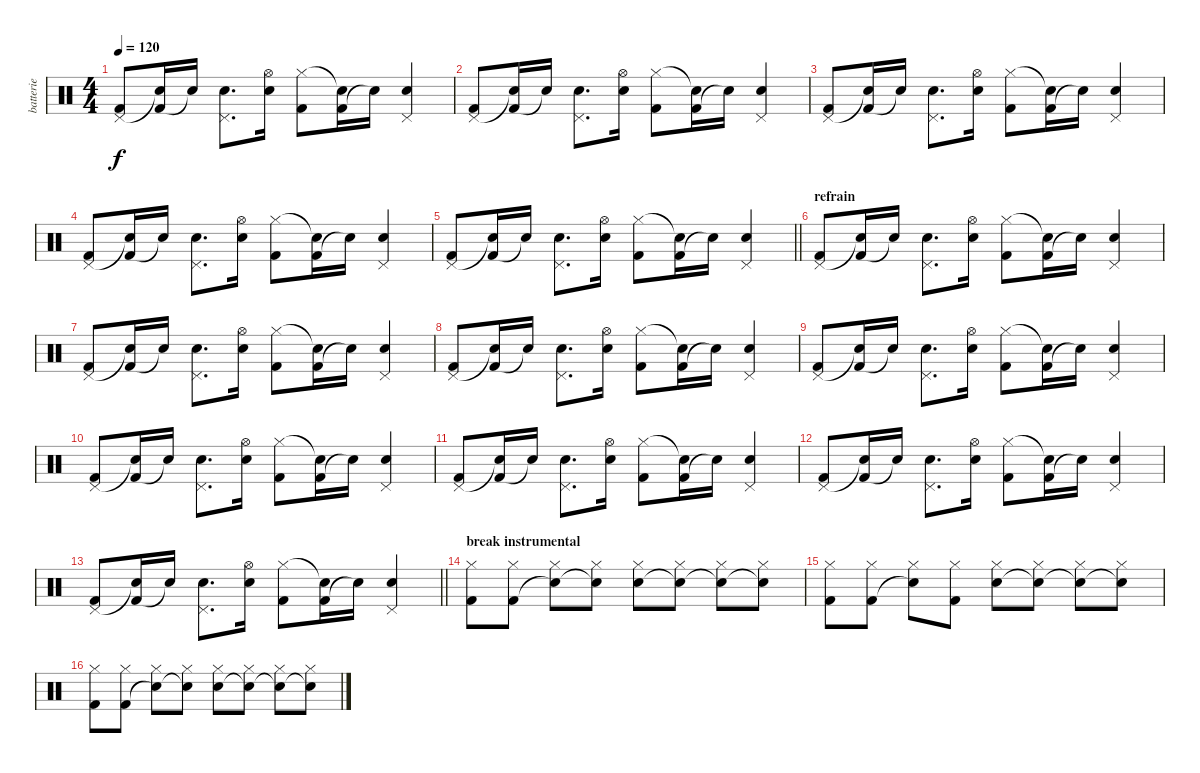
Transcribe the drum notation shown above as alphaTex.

\track ("batterie" "batterie") {instrument percussion}
\staff {score}
\articulation defaults
\ts (4 4)
\tempo 120
\clef neutral
\ks c
("Kick (hit) 2" "Pedal Hi-Hat (hit)").8{dy f} ("Kick (hit) 2" "Snare (hit)"{t}).16 "Snare (hit)"{t}.16 ("Snare (hit) 2" "Pedal Hi-Hat (hit)").8{d} ("Snare (hit) 2" "Hi-Hat (open)").16 ("Kick (hit) 2" "Hi-Hat (closed)").8 ("Kick (hit) 2" "Snare (hit)"{t}).16 "Snare (hit)"{t}.16 ("Snare (hit) 2" "Pedal Hi-Hat (hit)").4 |
("Kick (hit) 2" "Pedal Hi-Hat (hit)").8 ("Kick (hit) 2" "Snare (hit)"{t}).16 "Snare (hit)"{t}.16 ("Snare (hit) 2" "Pedal Hi-Hat (hit)").8{d} ("Snare (hit) 2" "Hi-Hat (open)").16 ("Kick (hit) 2" "Hi-Hat (closed)").8 ("Kick (hit) 2" "Snare (hit)"{t}).16 "Snare (hit)"{t}.16 ("Snare (hit) 2" "Pedal Hi-Hat (hit)").4 |
("Kick (hit) 2" "Pedal Hi-Hat (hit)").8 ("Kick (hit) 2" "Snare (hit)"{t}).16 "Snare (hit)"{t}.16 ("Snare (hit) 2" "Pedal Hi-Hat (hit)").8{d} ("Snare (hit) 2" "Hi-Hat (open)").16 ("Kick (hit) 2" "Hi-Hat (closed)").8 ("Kick (hit) 2" "Snare (hit)"{t}).16 "Snare (hit)"{t}.16 ("Snare (hit) 2" "Pedal Hi-Hat (hit)").4 |
("Kick (hit) 2" "Pedal Hi-Hat (hit)").8 ("Kick (hit) 2" "Snare (hit)"{t}).16 "Snare (hit)"{t}.16 ("Snare (hit) 2" "Pedal Hi-Hat (hit)").8{d} ("Snare (hit) 2" "Hi-Hat (open)").16 ("Kick (hit) 2" "Hi-Hat (closed)").8 ("Kick (hit) 2" "Snare (hit)"{t}).16 "Snare (hit)"{t}.16 ("Snare (hit) 2" "Pedal Hi-Hat (hit)").4 |
\barLineRight lightlight
("Kick (hit) 2" "Pedal Hi-Hat (hit)").8 ("Kick (hit) 2" "Snare (hit)"{t}).16 "Snare (hit)"{t}.16 ("Snare (hit) 2" "Pedal Hi-Hat (hit)").8{d} ("Snare (hit) 2" "Hi-Hat (open)").16 ("Kick (hit) 2" "Hi-Hat (closed)").8 ("Kick (hit) 2" "Snare (hit)"{t}).16 "Snare (hit)"{t}.16 ("Snare (hit) 2" "Pedal Hi-Hat (hit)").4 |
\section ("" "refrain")
("Kick (hit) 2" "Pedal Hi-Hat (hit)").8 ("Kick (hit) 2" "Snare (hit)"{t}).16 "Snare (hit)"{t}.16 ("Snare (hit) 2" "Pedal Hi-Hat (hit)").8{d} ("Snare (hit) 2" "Hi-Hat (open)").16 ("Kick (hit) 2" "Hi-Hat (closed)").8 ("Kick (hit) 2" "Snare (hit)"{t}).16 "Snare (hit)"{t}.16 ("Snare (hit) 2" "Pedal Hi-Hat (hit)").4 |
("Kick (hit) 2" "Pedal Hi-Hat (hit)").8 ("Kick (hit) 2" "Snare (hit)"{t}).16 "Snare (hit)"{t}.16 ("Snare (hit) 2" "Pedal Hi-Hat (hit)").8{d} ("Snare (hit) 2" "Hi-Hat (open)").16 ("Kick (hit) 2" "Hi-Hat (closed)").8 ("Kick (hit) 2" "Snare (hit)"{t}).16 "Snare (hit)"{t}.16 ("Snare (hit) 2" "Pedal Hi-Hat (hit)").4 |
("Kick (hit) 2" "Pedal Hi-Hat (hit)").8 ("Kick (hit) 2" "Snare (hit)"{t}).16 "Snare (hit)"{t}.16 ("Snare (hit) 2" "Pedal Hi-Hat (hit)").8{d} ("Snare (hit) 2" "Hi-Hat (open)").16 ("Kick (hit) 2" "Hi-Hat (closed)").8 ("Kick (hit) 2" "Snare (hit)"{t}).16 "Snare (hit)"{t}.16 ("Snare (hit) 2" "Pedal Hi-Hat (hit)").4 |
("Kick (hit) 2" "Pedal Hi-Hat (hit)").8 ("Kick (hit) 2" "Snare (hit)"{t}).16 "Snare (hit)"{t}.16 ("Snare (hit) 2" "Pedal Hi-Hat (hit)").8{d} ("Snare (hit) 2" "Hi-Hat (open)").16 ("Kick (hit) 2" "Hi-Hat (closed)").8 ("Kick (hit) 2" "Snare (hit)"{t}).16 "Snare (hit)"{t}.16 ("Snare (hit) 2" "Pedal Hi-Hat (hit)").4 |
("Kick (hit) 2" "Pedal Hi-Hat (hit)").8 ("Kick (hit) 2" "Snare (hit)"{t}).16 "Snare (hit)"{t}.16 ("Snare (hit) 2" "Pedal Hi-Hat (hit)").8{d} ("Snare (hit) 2" "Hi-Hat (open)").16 ("Kick (hit) 2" "Hi-Hat (closed)").8 ("Kick (hit) 2" "Snare (hit)"{t}).16 "Snare (hit)"{t}.16 ("Snare (hit) 2" "Pedal Hi-Hat (hit)").4 |
("Kick (hit) 2" "Pedal Hi-Hat (hit)").8 ("Kick (hit) 2" "Snare (hit)"{t}).16 "Snare (hit)"{t}.16 ("Snare (hit) 2" "Pedal Hi-Hat (hit)").8{d} ("Snare (hit) 2" "Hi-Hat (open)").16 ("Kick (hit) 2" "Hi-Hat (closed)").8 ("Kick (hit) 2" "Snare (hit)"{t}).16 "Snare (hit)"{t}.16 ("Snare (hit) 2" "Pedal Hi-Hat (hit)").4 |
("Kick (hit) 2" "Pedal Hi-Hat (hit)").8 ("Kick (hit) 2" "Snare (hit)"{t}).16 "Snare (hit)"{t}.16 ("Snare (hit) 2" "Pedal Hi-Hat (hit)").8{d} ("Snare (hit) 2" "Hi-Hat (open)").16 ("Kick (hit) 2" "Hi-Hat (closed)").8 ("Kick (hit) 2" "Snare (hit)"{t}).16 "Snare (hit)"{t}.16 ("Snare (hit) 2" "Pedal Hi-Hat (hit)").4 |
\barLineRight lightlight
("Kick (hit) 2" "Pedal Hi-Hat (hit)").8 ("Kick (hit) 2" "Snare (hit)"{t}).16 "Snare (hit)"{t}.16 ("Snare (hit) 2" "Pedal Hi-Hat (hit)").8{d} ("Snare (hit) 2" "Hi-Hat (open)").16 ("Kick (hit) 2" "Hi-Hat (closed)").8 ("Kick (hit) 2" "Snare (hit)"{t}).16 "Snare (hit)"{t}.16 ("Snare (hit) 2" "Pedal Hi-Hat (hit)").4 |
\section ("" "break instrumental")
("Kick (hit) 2" "Hi-Hat (closed)").8 ("Kick (hit) 2" "Hi-Hat (closed)").8 ("Snare (hit)"{t} "Hi-Hat (closed)").8 ("Snare (hit)"{t} "Hi-Hat (closed)").8 ("Hi-Hat (closed)" "Snare (hit) 2").8 ("Hi-Hat (closed)" "Snare (hit)"{t}).8 ("Hi-Hat (closed)" "Snare (hit)"{t}).8 ("Hi-Hat (closed)" "Snare (hit)"{t}).8 |
("Kick (hit) 2" "Hi-Hat (closed)").8 ("Kick (hit) 2" "Hi-Hat (closed)").8 ("Snare (hit)"{t} "Hi-Hat (closed)").8 ("Kick (hit) 2" "Hi-Hat (closed)").8 ("Hi-Hat (closed)" "Snare (hit) 2").8 ("Hi-Hat (closed)" "Snare (hit)"{t}).8 ("Hi-Hat (closed)" "Snare (hit)"{t}).8 ("Hi-Hat (closed)" "Snare (hit)"{t}).8 |
("Kick (hit) 2" "Hi-Hat (closed)").8 ("Kick (hit) 2" "Hi-Hat (closed)").8 ("Snare (hit)"{t} "Hi-Hat (closed)").8 ("Snare (hit)"{t} "Hi-Hat (closed)").8 ("Hi-Hat (closed)" "Snare (hit) 2").8 ("Hi-Hat (closed)" "Snare (hit)"{t}).8 ("Hi-Hat (closed)" "Snare (hit)"{t}).8 ("Hi-Hat (closed)" "Snare (hit)"{t}).8
